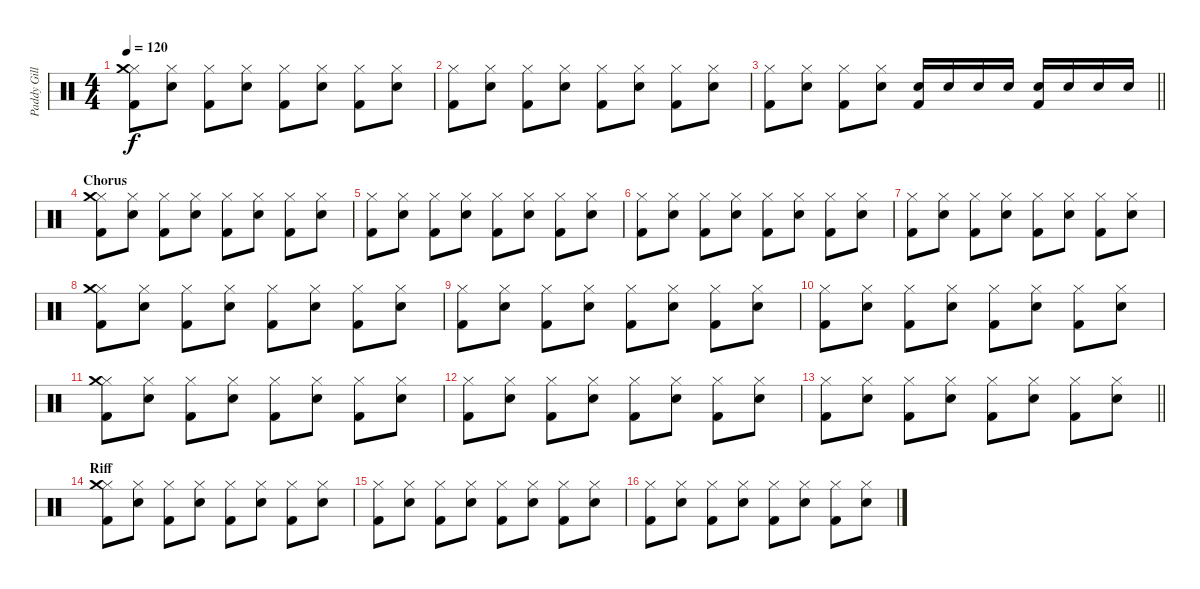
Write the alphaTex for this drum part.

\track ("Paddy Gillespie" "Paddy Gill") {instrument percussion}
\staff {score}
\articulation defaults
\ts (4 4)
\tempo 120
\clef neutral
\ks c
("Hi-Hat (closed)" "Kick (hit) 2" "Crash medium (hit)").8{dy f} ("Hi-Hat (closed)" "Snare (hit) 2").8 ("Hi-Hat (closed)" "Kick (hit) 2").8 ("Hi-Hat (closed)" "Snare (hit) 2").8 ("Hi-Hat (closed)" "Kick (hit) 2").8 ("Hi-Hat (closed)" "Snare (hit) 2").8 ("Hi-Hat (closed)" "Kick (hit) 2").8 ("Hi-Hat (closed)" "Snare (hit) 2").8 |
("Hi-Hat (closed)" "Kick (hit) 2").8 ("Hi-Hat (closed)" "Snare (hit) 2").8 ("Hi-Hat (closed)" "Kick (hit) 2").8 ("Hi-Hat (closed)" "Snare (hit) 2").8 ("Hi-Hat (closed)" "Kick (hit) 2").8 ("Hi-Hat (closed)" "Snare (hit) 2").8 ("Hi-Hat (closed)" "Kick (hit) 2").8 ("Hi-Hat (closed)" "Snare (hit) 2").8 |
\barLineRight lightlight
("Hi-Hat (closed)" "Kick (hit) 2").8 ("Hi-Hat (closed)" "Snare (hit) 2").8 ("Hi-Hat (closed)" "Kick (hit) 2").8 ("Hi-Hat (closed)" "Snare (hit) 2").8 ("Snare (hit) 2" "Kick (hit) 2").16 "Snare (hit) 2".16 "Snare (hit) 2".16 "Snare (hit) 2".16 ("Snare (hit) 2" "Kick (hit) 2").16 "Snare (hit) 2".16 "Snare (hit) 2".16 "Snare (hit) 2".16 |
\section ("" "Chorus")
("Hi-Hat (closed)" "Kick (hit) 2" "Crash medium (hit)").8 ("Hi-Hat (closed)" "Snare (hit) 2").8 ("Hi-Hat (closed)" "Kick (hit) 2").8 ("Hi-Hat (closed)" "Snare (hit) 2").8 ("Hi-Hat (closed)" "Kick (hit) 2").8 ("Hi-Hat (closed)" "Snare (hit) 2").8 ("Hi-Hat (closed)" "Kick (hit) 2").8 ("Hi-Hat (closed)" "Snare (hit) 2").8 |
("Hi-Hat (closed)" "Kick (hit) 2").8 ("Hi-Hat (closed)" "Snare (hit) 2").8 ("Hi-Hat (closed)" "Kick (hit) 2").8 ("Hi-Hat (closed)" "Snare (hit) 2").8 ("Hi-Hat (closed)" "Kick (hit) 2").8 ("Hi-Hat (closed)" "Snare (hit) 2").8 ("Hi-Hat (closed)" "Kick (hit) 2").8 ("Hi-Hat (closed)" "Snare (hit) 2").8 |
("Hi-Hat (closed)" "Kick (hit) 2").8 ("Hi-Hat (closed)" "Snare (hit) 2").8 ("Hi-Hat (closed)" "Kick (hit) 2").8 ("Hi-Hat (closed)" "Snare (hit) 2").8 ("Hi-Hat (closed)" "Kick (hit) 2").8 ("Hi-Hat (closed)" "Snare (hit) 2").8 ("Hi-Hat (closed)" "Kick (hit) 2").8 ("Hi-Hat (closed)" "Snare (hit) 2").8 |
("Hi-Hat (closed)" "Kick (hit) 2").8 ("Hi-Hat (closed)" "Snare (hit) 2").8 ("Hi-Hat (closed)" "Kick (hit) 2").8 ("Hi-Hat (closed)" "Snare (hit) 2").8 ("Hi-Hat (closed)" "Kick (hit) 2").8 ("Hi-Hat (closed)" "Snare (hit) 2").8 ("Hi-Hat (closed)" "Kick (hit) 2").8 ("Hi-Hat (closed)" "Snare (hit) 2").8 |
("Hi-Hat (closed)" "Kick (hit) 2" "Crash medium (hit)").8 ("Hi-Hat (closed)" "Snare (hit) 2").8 ("Hi-Hat (closed)" "Kick (hit) 2").8 ("Hi-Hat (closed)" "Snare (hit) 2").8 ("Hi-Hat (closed)" "Kick (hit) 2").8 ("Hi-Hat (closed)" "Snare (hit) 2").8 ("Hi-Hat (closed)" "Kick (hit) 2").8 ("Hi-Hat (closed)" "Snare (hit) 2").8 |
("Hi-Hat (closed)" "Kick (hit) 2").8 ("Hi-Hat (closed)" "Snare (hit) 2").8 ("Hi-Hat (closed)" "Kick (hit) 2").8 ("Hi-Hat (closed)" "Snare (hit) 2").8 ("Hi-Hat (closed)" "Kick (hit) 2").8 ("Hi-Hat (closed)" "Snare (hit) 2").8 ("Hi-Hat (closed)" "Kick (hit) 2").8 ("Hi-Hat (closed)" "Snare (hit) 2").8 |
("Hi-Hat (closed)" "Kick (hit) 2").8 ("Hi-Hat (closed)" "Snare (hit) 2").8 ("Hi-Hat (closed)" "Kick (hit) 2").8 ("Hi-Hat (closed)" "Snare (hit) 2").8 ("Hi-Hat (closed)" "Kick (hit) 2").8 ("Hi-Hat (closed)" "Snare (hit) 2").8 ("Hi-Hat (closed)" "Kick (hit) 2").8 ("Hi-Hat (closed)" "Snare (hit) 2").8 |
("Hi-Hat (closed)" "Kick (hit) 2" "Crash medium (hit)").8 ("Hi-Hat (closed)" "Snare (hit) 2").8 ("Hi-Hat (closed)" "Kick (hit) 2").8 ("Hi-Hat (closed)" "Snare (hit) 2").8 ("Hi-Hat (closed)" "Kick (hit) 2").8 ("Hi-Hat (closed)" "Snare (hit) 2").8 ("Hi-Hat (closed)" "Kick (hit) 2").8 ("Hi-Hat (closed)" "Snare (hit) 2").8 |
("Hi-Hat (closed)" "Kick (hit) 2").8 ("Hi-Hat (closed)" "Snare (hit) 2").8 ("Hi-Hat (closed)" "Kick (hit) 2").8 ("Hi-Hat (closed)" "Snare (hit) 2").8 ("Hi-Hat (closed)" "Kick (hit) 2").8 ("Hi-Hat (closed)" "Snare (hit) 2").8 ("Hi-Hat (closed)" "Kick (hit) 2").8 ("Hi-Hat (closed)" "Snare (hit) 2").8 |
\barLineRight lightlight
("Hi-Hat (closed)" "Kick (hit) 2").8 ("Hi-Hat (closed)" "Snare (hit) 2").8 ("Hi-Hat (closed)" "Kick (hit) 2").8 ("Hi-Hat (closed)" "Snare (hit) 2").8 ("Hi-Hat (closed)" "Kick (hit) 2").8 ("Hi-Hat (closed)" "Snare (hit) 2").8 ("Hi-Hat (closed)" "Kick (hit) 2").8 ("Hi-Hat (closed)" "Snare (hit) 2").8 |
\section ("" "Riff")
("Hi-Hat (closed)" "Kick (hit) 2" "Crash medium (hit)").8 ("Hi-Hat (closed)" "Snare (hit) 2").8 ("Hi-Hat (closed)" "Kick (hit) 2").8 ("Hi-Hat (closed)" "Snare (hit) 2").8 ("Hi-Hat (closed)" "Kick (hit) 2").8 ("Hi-Hat (closed)" "Snare (hit) 2").8 ("Hi-Hat (closed)" "Kick (hit) 2").8 ("Hi-Hat (closed)" "Snare (hit) 2").8 |
("Hi-Hat (closed)" "Kick (hit) 2").8 ("Hi-Hat (closed)" "Snare (hit) 2").8 ("Hi-Hat (closed)" "Kick (hit) 2").8 ("Hi-Hat (closed)" "Snare (hit) 2").8 ("Hi-Hat (closed)" "Kick (hit) 2").8 ("Hi-Hat (closed)" "Snare (hit) 2").8 ("Hi-Hat (closed)" "Kick (hit) 2").8 ("Hi-Hat (closed)" "Snare (hit) 2").8 |
("Hi-Hat (closed)" "Kick (hit) 2").8 ("Hi-Hat (closed)" "Snare (hit) 2").8 ("Hi-Hat (closed)" "Kick (hit) 2").8 ("Hi-Hat (closed)" "Snare (hit) 2").8 ("Hi-Hat (closed)" "Kick (hit) 2").8 ("Hi-Hat (closed)" "Snare (hit) 2").8 ("Hi-Hat (closed)" "Kick (hit) 2").8 ("Hi-Hat (closed)" "Snare (hit) 2").8
